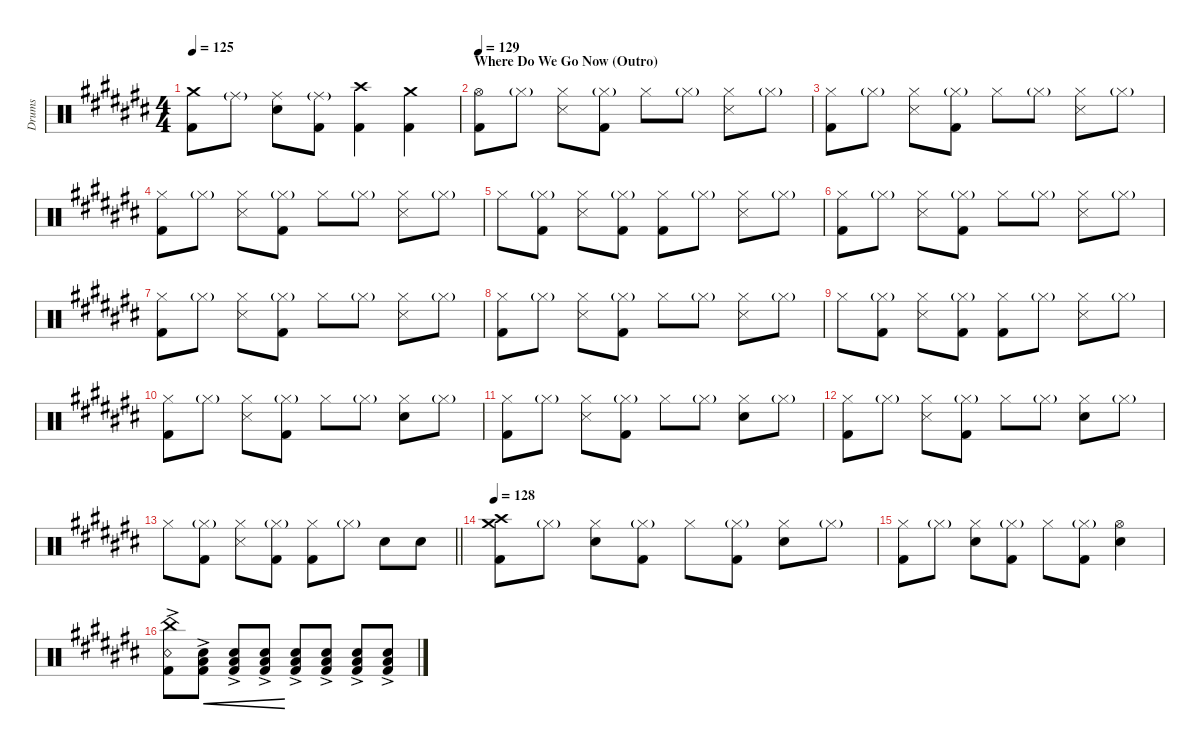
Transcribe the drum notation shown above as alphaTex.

\hideDynamics
\bracketExtendMode nobrackets
\otherSystemsTrackNameOrientation horizontal
\track ("Drumkit" "Drums") {defaultSystemsLayout 4 instrument percussion}
\staff {score}
\articulation defaults
\ts (4 4)
\tempo 125
\clef neutral
\ks c#
("Crash medium (hit)"{acc forcenatural} "Kick (hit) 2"{acc forcenatural}).8{dy ff beam Down} "Ride (middle)"{g acc forcenatural}.8{beam Down} ("Ride (middle)"{acc forcenatural} "Snare (hit) 2"{acc forcenatural}).8{beam Down} ("Ride (middle)"{g acc forcenatural} "Kick (hit) 2"{acc forcenatural}).8{beam Down} ("Crash high (hit)"{acc forcenatural} "Kick (hit) 2"{acc forcenatural}).4{beam Down} ("Kick (hit) 2"{acc forcenatural} "Crash medium (hit)"{acc forcenatural}).4{beam Down} |
\section ("" "Where Do We Go Now (Outro)")
\tempo 129
("Hi-Hat (open)"{acc forcenatural} "Kick (hit) 2"{acc forcenatural}).8{beam Down} "Hi-Hat (closed)"{g acc forcenatural}.8{beam Down} ("Hi-Hat (closed)"{acc forcenatural} "Snare (side stick) 3"{acc forcenatural}).8{beam Down} ("Hi-Hat (closed)"{g acc forcenatural} "Kick (hit) 2"{acc forcenatural}).8{beam Down} "Hi-Hat (closed)"{acc forcenatural}.8{beam Down} "Hi-Hat (closed)"{g acc forcenatural}.8{beam Down} ("Hi-Hat (closed)"{acc forcenatural} "Snare (side stick) 3"{acc forcenatural}).8{beam Down} "Hi-Hat (closed)"{g acc forcenatural}.8{beam Down} |
("Hi-Hat (closed)"{acc forcenatural} "Kick (hit) 2"{acc forcenatural}).8{beam Down} "Hi-Hat (closed)"{g acc forcenatural}.8{beam Down} ("Hi-Hat (closed)"{acc forcenatural} "Snare (side stick) 3"{acc forcenatural}).8{beam Down} ("Hi-Hat (closed)"{g acc forcenatural} "Kick (hit) 2"{acc forcenatural}).8{beam Down} "Hi-Hat (closed)"{acc forcenatural}.8{beam Down} "Hi-Hat (closed)"{g acc forcenatural}.8{beam Down} ("Hi-Hat (closed)"{acc forcenatural} "Snare (side stick) 3"{acc forcenatural}).8{beam Down} "Hi-Hat (closed)"{g acc forcenatural}.8{beam Down} |
("Hi-Hat (closed)"{acc forcenatural} "Kick (hit) 2"{acc forcenatural}).8{beam Down} "Hi-Hat (closed)"{g acc forcenatural}.8{beam Down} ("Hi-Hat (closed)"{acc forcenatural} "Snare (side stick) 3"{acc forcenatural}).8{beam Down} ("Hi-Hat (closed)"{g acc forcenatural} "Kick (hit) 2"{acc forcenatural}).8{beam Down} "Hi-Hat (closed)"{acc forcenatural}.8{beam Down} "Hi-Hat (closed)"{g acc forcenatural}.8{beam Down} ("Hi-Hat (closed)"{acc forcenatural} "Snare (side stick) 3"{acc forcenatural}).8{beam Down} "Hi-Hat (closed)"{g acc forcenatural}.8{beam Down} |
"Hi-Hat (closed)"{acc forcenatural}.8{beam Down} ("Hi-Hat (closed)"{g acc forcenatural} "Kick (hit) 2"{acc forcenatural}).8{beam Down} ("Hi-Hat (closed)"{acc forcenatural} "Snare (side stick) 3"{acc forcenatural}).8{beam Down} ("Hi-Hat (closed)"{g acc forcenatural} "Kick (hit) 2"{acc forcenatural}).8{beam Down} ("Hi-Hat (closed)"{acc forcenatural} "Kick (hit) 2"{acc forcenatural}).8{beam Down} "Hi-Hat (closed)"{g acc forcenatural}.8{beam Down} ("Hi-Hat (closed)"{acc forcenatural} "Snare (side stick) 3"{acc forcenatural}).8{beam Down} "Hi-Hat (closed)"{g acc forcenatural}.8{beam Down} |
("Hi-Hat (closed)"{acc forcenatural} "Kick (hit) 2"{acc forcenatural}).8{beam Down} "Hi-Hat (closed)"{g acc forcenatural}.8{beam Down} ("Hi-Hat (closed)"{acc forcenatural} "Snare (side stick) 3"{acc forcenatural}).8{beam Down} ("Hi-Hat (closed)"{g acc forcenatural} "Kick (hit) 2"{acc forcenatural}).8{beam Down} "Hi-Hat (closed)"{acc forcenatural}.8{beam Down} "Hi-Hat (closed)"{g acc forcenatural}.8{beam Down} ("Hi-Hat (closed)"{acc forcenatural} "Snare (side stick) 3"{acc forcenatural}).8{beam Down} "Hi-Hat (closed)"{g acc forcenatural}.8{beam Down} |
("Hi-Hat (closed)"{acc forcenatural} "Kick (hit) 2"{acc forcenatural}).8{beam Down} "Hi-Hat (closed)"{g acc forcenatural}.8{beam Down} ("Hi-Hat (closed)"{acc forcenatural} "Snare (side stick) 3"{acc forcenatural}).8{beam Down} ("Hi-Hat (closed)"{g acc forcenatural} "Kick (hit) 2"{acc forcenatural}).8{beam Down} "Hi-Hat (closed)"{acc forcenatural}.8{beam Down} "Hi-Hat (closed)"{g acc forcenatural}.8{beam Down} ("Hi-Hat (closed)"{acc forcenatural} "Snare (side stick) 3"{acc forcenatural}).8{beam Down} "Hi-Hat (closed)"{g acc forcenatural}.8{beam Down} |
("Hi-Hat (closed)"{acc forcenatural} "Kick (hit) 2"{acc forcenatural}).8{beam Down} "Hi-Hat (closed)"{g acc forcenatural}.8{beam Down} ("Hi-Hat (closed)"{acc forcenatural} "Snare (side stick) 3"{acc forcenatural}).8{beam Down} ("Hi-Hat (closed)"{g acc forcenatural} "Kick (hit) 2"{acc forcenatural}).8{beam Down} "Hi-Hat (closed)"{acc forcenatural}.8{beam Down} "Hi-Hat (closed)"{g acc forcenatural}.8{beam Down} ("Hi-Hat (closed)"{acc forcenatural} "Snare (side stick) 3"{acc forcenatural}).8{beam Down} "Hi-Hat (closed)"{g acc forcenatural}.8{beam Down} |
"Hi-Hat (closed)"{acc forcenatural}.8{beam Down} ("Hi-Hat (closed)"{g acc forcenatural} "Kick (hit) 2"{acc forcenatural}).8{beam Down} ("Hi-Hat (closed)"{acc forcenatural} "Snare (side stick) 3"{acc forcenatural}).8{beam Down} ("Hi-Hat (closed)"{g acc forcenatural} "Kick (hit) 2"{acc forcenatural}).8{beam Down} ("Hi-Hat (closed)"{acc forcenatural} "Kick (hit) 2"{acc forcenatural}).8{beam Down} "Hi-Hat (closed)"{g acc forcenatural}.8{beam Down} ("Hi-Hat (closed)"{acc forcenatural} "Snare (side stick) 3"{acc forcenatural}).8{beam Down} "Hi-Hat (closed)"{g acc forcenatural}.8{beam Down} |
("Hi-Hat (closed)"{acc forcenatural} "Kick (hit) 2"{acc forcenatural}).8{beam Down} "Hi-Hat (closed)"{g acc forcenatural}.8{beam Down} ("Hi-Hat (closed)"{acc forcenatural} "Snare (side stick) 3"{acc forcenatural}).8{beam Down} ("Hi-Hat (closed)"{g acc forcenatural} "Kick (hit) 2"{acc forcenatural}).8{beam Down} "Hi-Hat (closed)"{acc forcenatural}.8{beam Down} "Hi-Hat (closed)"{g acc forcenatural}.8{beam Down} ("Hi-Hat (closed)"{acc forcenatural} "Snare (hit) 2"{acc forcenatural}).8{beam Down} "Hi-Hat (closed)"{g acc forcenatural}.8{beam Down} |
("Hi-Hat (closed)"{acc forcenatural} "Kick (hit) 2"{acc forcenatural}).8{beam Down} "Hi-Hat (closed)"{g acc forcenatural}.8{beam Down} ("Hi-Hat (closed)"{acc forcenatural} "Snare (side stick) 3"{acc forcenatural}).8{beam Down} ("Hi-Hat (closed)"{g acc forcenatural} "Kick (hit) 2"{acc forcenatural}).8{beam Down} "Hi-Hat (closed)"{acc forcenatural}.8{beam Down} "Hi-Hat (closed)"{g acc forcenatural}.8{beam Down} ("Hi-Hat (closed)"{acc forcenatural} "Snare (hit) 2"{acc forcenatural}).8{beam Down} "Hi-Hat (closed)"{g acc forcenatural}.8{beam Down} |
("Hi-Hat (closed)"{acc forcenatural} "Kick (hit) 2"{acc forcenatural}).8{beam Down} "Hi-Hat (closed)"{g acc forcenatural}.8{beam Down} ("Hi-Hat (closed)"{acc forcenatural} "Snare (side stick) 3"{acc forcenatural}).8{beam Down} ("Hi-Hat (closed)"{g acc forcenatural} "Kick (hit) 2"{acc forcenatural}).8{beam Down} "Hi-Hat (closed)"{acc forcenatural}.8{beam Down} "Hi-Hat (closed)"{g acc forcenatural}.8{beam Down} ("Hi-Hat (closed)"{acc forcenatural} "Snare (hit) 2"{acc forcenatural}).8{beam Down} "Hi-Hat (closed)"{g acc forcenatural}.8{beam Down} |
\barLineRight lightlight "Hi-Hat (closed)"{acc forcenatural}.8{beam Down}
("Hi-Hat (closed)"{g acc forcenatural} "Kick (hit) 2"{acc forcenatural}).8{beam Down} ("Hi-Hat (closed)"{acc forcenatural} "Snare (side stick) 3"{acc forcenatural}).8{beam Down} ("Hi-Hat (closed)"{g acc forcenatural} "Kick (hit) 2"{acc forcenatural}).8{beam Down} ("Hi-Hat (closed)"{acc forcenatural} "Kick (hit) 2"{acc forcenatural}).8{beam Down} "Hi-Hat (closed)"{g acc forcenatural}.8{beam Down} "Snare (hit) 2"{acc forcenatural}.8{beam Down} "Snare (hit) 2"{acc forcenatural}.8{beam Down} |
\tempo 128
("Kick (hit) 2"{acc forcenatural} "Crash high (hit)"{acc forcenatural} "Crash medium (hit)"{acc forcenatural}).8{beam Down} "Hi-Hat (closed)"{g acc forcenatural}.8{beam Down} ("Hi-Hat (closed)"{acc forcenatural} "Snare (hit) 2"{acc forcenatural}).8{beam Down} ("Hi-Hat (closed)"{g acc forcenatural} "Kick (hit) 2"{acc forcenatural}).8{beam Down} "Hi-Hat (closed)"{acc forcenatural}.8{beam Down} ("Hi-Hat (closed)"{g acc forcenatural} "Kick (hit) 2"{acc forcenatural}).8{beam Down} ("Hi-Hat (closed)"{acc forcenatural} "Snare (hit) 2"{acc forcenatural}).8{beam Down} "Hi-Hat (closed)"{g acc forcenatural}.8{beam Down} |
("Hi-Hat (closed)"{acc forcenatural} "Kick (hit) 2"{acc forcenatural}).8{beam Down} "Hi-Hat (closed)"{g acc forcenatural}.8{beam Down} ("Hi-Hat (closed)"{acc forcenatural} "Snare (hit) 2"{acc forcenatural}).8{beam Down} ("Hi-Hat (closed)"{g acc forcenatural} "Kick (hit) 2"{acc forcenatural}).8{beam Down} "Hi-Hat (closed)"{acc forcenatural}.8{beam Down} ("Hi-Hat (closed)"{g acc forcenatural} "Kick (hit) 2"{acc forcenatural}).8{beam Down} ("Hi-Hat (open)"{acc forcenatural} "Snare (hit) 2"{acc forcenatural}).4{beam Down} |
("Snare (rim shot)"{ac acc forcenatural} "China (hit)"{acc forcenatural} "Kick (hit) 2"{acc forcenatural}).8{beam Down} ("Low Tom (hit)"{ac acc forcenatural} "Snare (hit) 2"{acc forcenatural} "Kick (hit) 2"{acc forcenatural}).8{cre dy p beam Down} ("Low Tom (hit)"{ac acc forcenatural} "Snare (hit) 2"{acc forcenatural} "Kick (hit) 2"{acc forcenatural}).8{cre beam Up} ("Low Tom (hit)"{ac acc forcenatural} "Snare (hit) 2"{acc forcenatural} "Kick (hit) 2"{acc forcenatural}).8{cre beam Up} ("Low Tom (hit)"{ac acc forcenatural} "Snare (hit) 2"{acc forcenatural} "Kick (hit) 2"{acc forcenatural}).8{dy mp beam Up} ("Low Tom (hit)"{ac acc forcenatural} "Snare (hit) 2"{acc forcenatural} "Kick (hit) 2"{acc forcenatural}).8{beam Up} ("Low Tom (hit)"{ac acc forcenatural} "Snare (hit) 2"{acc forcenatural} "Kick (hit) 2"{acc forcenatural}).8{dy mf beam Up} ("Low Tom (hit)"{ac acc forcenatural} "Snare (hit) 2"{acc forcenatural} "Kick (hit) 2"{acc forcenatural}).8{beam Up}
